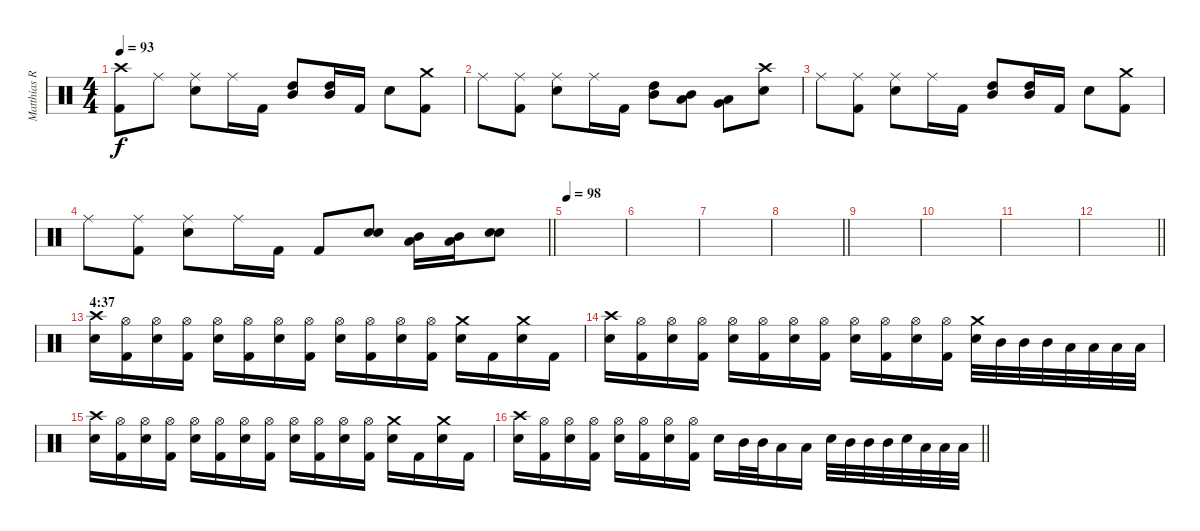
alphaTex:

\track ("Matthias R." "Matthias R") {instrument percussion}
\staff {score}
\articulation defaults
\ts (4 4)
\tempo 93
\clef neutral
\ks c
("Kick (hit) 2" "Crash high (hit)").8{dy f} "Ride (middle)".8 ("Snare (hit) 2" "Ride (middle)").8 "Ride (middle)".16 "Kick (hit) 2".16 ("High Tom (hit)" "Mid Tom (hit)").8 ("High Tom (hit)" "Mid Tom (hit)").16 "Kick (hit) 2".16 "Snare (hit) 2".8 ("Kick (hit) 2" "Crash medium (hit)").8 |
"Ride (middle)".8 ("Kick (hit) 2" "Ride (middle)").8 ("Snare (hit) 2" "Ride (middle)").8 "Ride (middle)".16 "Kick (hit) 2".16 ("High Tom (hit)" "Mid Tom (hit)").8 ("Mid Tom (hit)" "Low Tom (hit)").8 ("Low Tom (hit)" "Very Low Tom (hit)").8 ("Snare (hit) 2" "Crash high (hit)").8 |
"Ride (middle)".8 ("Kick (hit) 2" "Ride (middle)").8 ("Snare (hit) 2" "Ride (middle)").8 "Ride (middle)".16 "Kick (hit) 2".16 ("High Tom (hit)" "Mid Tom (hit)").8 ("High Tom (hit)" "Mid Tom (hit)").16 "Kick (hit) 2".16 "Snare (hit) 2".8 ("Kick (hit) 2" "Crash medium (hit)").8 |
\barLineRight lightlight "Ride (middle)".8
("Kick (hit) 2" "Ride (middle)").8 ("Snare (hit) 2" "Ride (middle)").8 "Ride (middle)".16 "Kick (hit) 2".16 "Kick (hit) 2".8 ("Snare (hit) 2" "Electric Snare (hit)").8{bu 30} ("Mid Tom (hit)" "Low Tom (hit)").16 ("Mid Tom (hit)" "Low Tom (hit)").16 ("Snare (hit) 2" "Electric Snare (hit)").8{bu 30} |
\tempo 98
|
|
|
\barLineRight lightlight
|
|
|
|
\barLineRight lightlight
|
\section ("" "4:37")
("Snare (hit) 2" "Crash high (hit)").16 ("Kick (hit) 2" "Hi-Hat (open)").16 ("Snare (hit) 2" "Hi-Hat (open)").16 ("Kick (hit) 2" "Hi-Hat (open)").16 ("Snare (hit) 2" "Hi-Hat (open)").16 ("Kick (hit) 2" "Hi-Hat (open)").16 ("Snare (hit) 2" "Hi-Hat (open)").16 ("Kick (hit) 2" "Hi-Hat (open)").16 ("Snare (hit) 2" "Hi-Hat (open)").16 ("Kick (hit) 2" "Hi-Hat (open)").16 ("Snare (hit) 2" "Hi-Hat (open)").16 ("Kick (hit) 2" "Hi-Hat (open)").16 ("Snare (hit) 2" "Crash medium (hit)").16 "Kick (hit) 2".16 ("Snare (hit) 2" "Crash medium (hit)").16 "Kick (hit) 2".16 |
("Snare (hit) 2" "Crash high (hit)").16 ("Kick (hit) 2" "Hi-Hat (open)").16 ("Snare (hit) 2" "Hi-Hat (open)").16 ("Kick (hit) 2" "Hi-Hat (open)").16 ("Snare (hit) 2" "Hi-Hat (open)").16 ("Kick (hit) 2" "Hi-Hat (open)").16 ("Snare (hit) 2" "Hi-Hat (open)").16 ("Kick (hit) 2" "Hi-Hat (open)").16 ("Snare (hit) 2" "Hi-Hat (open)").16 ("Kick (hit) 2" "Hi-Hat (open)").16 ("Snare (hit) 2" "Hi-Hat (open)").16 ("Kick (hit) 2" "Hi-Hat (open)").16 ("Snare (hit) 2" "Crash medium (hit)").32 "Mid Tom (hit)".32 "Mid Tom (hit)".32 "Mid Tom (hit)".32 "Low Tom (hit)".32 "Low Tom (hit)".32 "Low Tom (hit)".32 "Low Tom (hit)".32 |
("Snare (hit) 2" "Crash high (hit)").16 ("Kick (hit) 2" "Hi-Hat (open)").16 ("Snare (hit) 2" "Hi-Hat (open)").16 ("Kick (hit) 2" "Hi-Hat (open)").16 ("Snare (hit) 2" "Hi-Hat (open)").16 ("Kick (hit) 2" "Hi-Hat (open)").16 ("Snare (hit) 2" "Hi-Hat (open)").16 ("Kick (hit) 2" "Hi-Hat (open)").16 ("Snare (hit) 2" "Hi-Hat (open)").16 ("Kick (hit) 2" "Hi-Hat (open)").16 ("Snare (hit) 2" "Hi-Hat (open)").16 ("Kick (hit) 2" "Hi-Hat (open)").16 ("Snare (hit) 2" "Crash medium (hit)").16 "Kick (hit) 2".16 ("Snare (hit) 2" "Crash medium (hit)").16 "Kick (hit) 2".16 |
\barLineRight lightlight
("Snare (hit) 2" "Crash high (hit)").16 ("Kick (hit) 2" "Hi-Hat (open)").16 ("Snare (hit) 2" "Hi-Hat (open)").16 ("Kick (hit) 2" "Hi-Hat (open)").16 ("Snare (hit) 2" "Hi-Hat (open)").16 ("Kick (hit) 2" "Hi-Hat (open)").16 ("Snare (hit) 2" "Hi-Hat (open)").16 ("Kick (hit) 2" "Hi-Hat (open)").16 "Snare (hit) 2".16 "Mid Tom (hit)".32 "Mid Tom (hit)".32 "Low Tom (hit)".16 "Low Tom (hit)".16 "Snare (hit) 2".32 "Mid Tom (hit)".32 "Mid Tom (hit)".32 "Mid Tom (hit)".32 "Snare (hit) 2".32 "Low Tom (hit)".32 "Low Tom (hit)".32 "Low Tom (hit)".32
